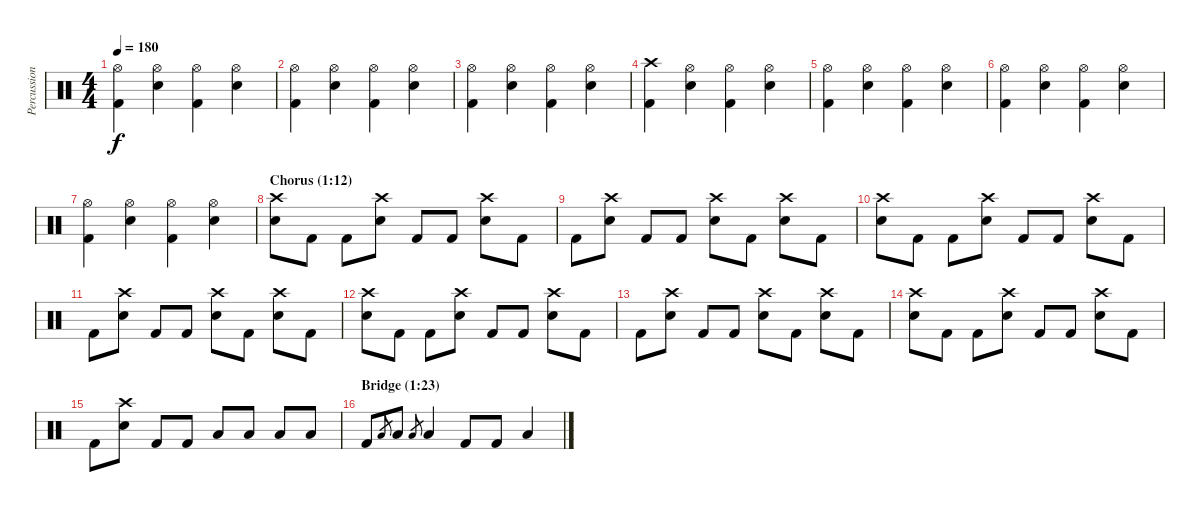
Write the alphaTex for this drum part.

\track ("Percussion" "Percussion") {instrument percussion}
\staff {score}
\articulation defaults
\ts (4 4)
\tempo 180
\clef neutral
\ks c
("Hi-Hat (open)" "Kick (hit) 2").4{dy f} ("Hi-Hat (open)" "Electric Snare (hit)").4 ("Hi-Hat (open)" "Kick (hit) 2").4 ("Hi-Hat (open)" "Electric Snare (hit)").4 |
("Hi-Hat (open)" "Kick (hit) 2").4 ("Hi-Hat (open)" "Electric Snare (hit)").4 ("Hi-Hat (open)" "Kick (hit) 2").4 ("Hi-Hat (open)" "Electric Snare (hit)").4 |
("Hi-Hat (open)" "Kick (hit) 2").4 ("Hi-Hat (open)" "Electric Snare (hit)").4 ("Hi-Hat (open)" "Kick (hit) 2").4 ("Hi-Hat (open)" "Electric Snare (hit)").4 |
("Crash high (hit)" "Kick (hit) 2").4 ("Hi-Hat (open)" "Electric Snare (hit)").4 ("Hi-Hat (open)" "Kick (hit) 2").4 ("Hi-Hat (open)" "Electric Snare (hit)").4 |
("Hi-Hat (open)" "Kick (hit) 2").4 ("Hi-Hat (open)" "Electric Snare (hit)").4 ("Hi-Hat (open)" "Kick (hit) 2").4 ("Hi-Hat (open)" "Electric Snare (hit)").4 |
("Hi-Hat (open)" "Kick (hit) 2").4 ("Hi-Hat (open)" "Electric Snare (hit)").4 ("Hi-Hat (open)" "Kick (hit) 2").4 ("Hi-Hat (open)" "Electric Snare (hit)").4 |
("Hi-Hat (open)" "Kick (hit) 2").4 ("Hi-Hat (open)" "Electric Snare (hit)").4 ("Hi-Hat (open)" "Kick (hit) 2").4 ("Hi-Hat (open)" "Electric Snare (hit)").4 |
\section ("" "Chorus (1:12)")
("Crash high (hit)" "Electric Snare (hit)").8 "Kick (hit) 2".8 "Kick (hit) 2".8 ("Crash high (hit)" "Electric Snare (hit)").8 "Kick (hit) 2".8 "Kick (hit) 2".8 ("Crash high (hit)" "Electric Snare (hit)").8 "Kick (hit) 2".8 |
"Kick (hit) 2".8 ("Crash high (hit)" "Electric Snare (hit)").8 "Kick (hit) 2".8 "Kick (hit) 2".8 ("Crash high (hit)" "Electric Snare (hit)").8 "Kick (hit) 2".8 ("Crash high (hit)" "Electric Snare (hit)").8 "Kick (hit) 2".8 |
("Crash high (hit)" "Electric Snare (hit)").8 "Kick (hit) 2".8 "Kick (hit) 2".8 ("Crash high (hit)" "Electric Snare (hit)").8 "Kick (hit) 2".8 "Kick (hit) 2".8 ("Crash high (hit)" "Electric Snare (hit)").8 "Kick (hit) 2".8 |
"Kick (hit) 2".8 ("Crash high (hit)" "Electric Snare (hit)").8 "Kick (hit) 2".8 "Kick (hit) 2".8 ("Crash high (hit)" "Electric Snare (hit)").8 "Kick (hit) 2".8 ("Crash high (hit)" "Electric Snare (hit)").8 "Kick (hit) 2".8 |
("Crash high (hit)" "Electric Snare (hit)").8 "Kick (hit) 2".8 "Kick (hit) 2".8 ("Crash high (hit)" "Electric Snare (hit)").8 "Kick (hit) 2".8 "Kick (hit) 2".8 ("Crash high (hit)" "Electric Snare (hit)").8 "Kick (hit) 2".8 |
"Kick (hit) 2".8 ("Crash high (hit)" "Electric Snare (hit)").8 "Kick (hit) 2".8 "Kick (hit) 2".8 ("Crash high (hit)" "Electric Snare (hit)").8 "Kick (hit) 2".8 ("Crash high (hit)" "Electric Snare (hit)").8 "Kick (hit) 2".8 |
("Crash high (hit)" "Electric Snare (hit)").8 "Kick (hit) 2".8 "Kick (hit) 2".8 ("Crash high (hit)" "Electric Snare (hit)").8 "Kick (hit) 2".8 "Kick (hit) 2".8 ("Crash high (hit)" "Electric Snare (hit)").8 "Kick (hit) 2".8 |
"Kick (hit) 2".8 ("Crash high (hit)" "Electric Snare (hit)").8 "Kick (hit) 2".8 "Kick (hit) 2".8 "Low Tom (hit)".8 "Low Tom (hit)".8 "Low Tom (hit)".8 "Low Tom (hit)".8 |
\section ("" "Bridge (1:23)")
"Kick (hit) 2".8 "Low Tom (hit)".8{gr} "Low Tom (hit)".8 "Low Tom (hit)".8{gr} "Low Tom (hit)".4 "Kick (hit) 2".8 "Kick (hit) 2".8 "Low Tom (hit)".4
